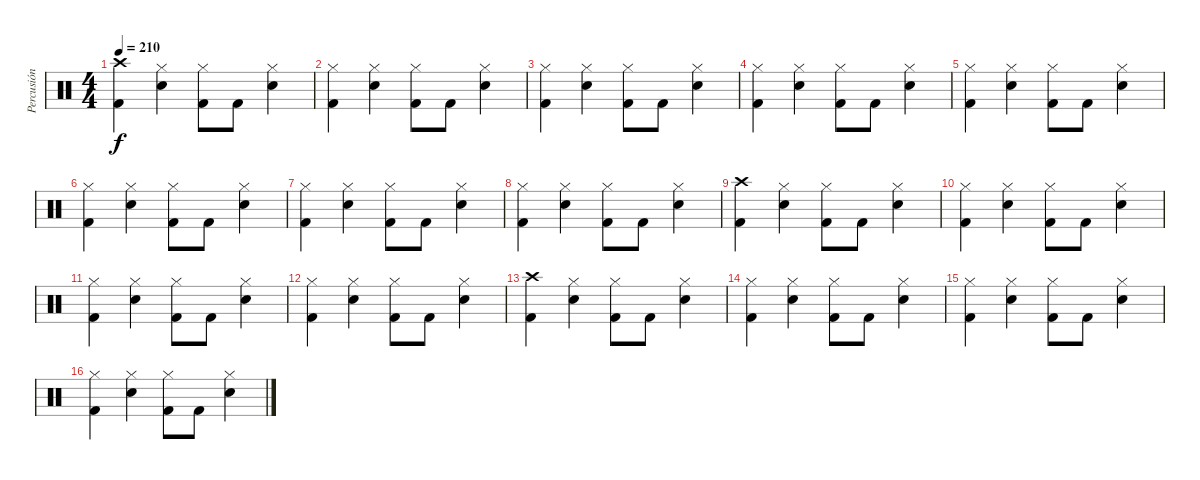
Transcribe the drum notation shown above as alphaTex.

\track ("Percusión" "Percusión") {instrument percussion}
\staff {score}
\articulation defaults
\ts (4 4)
\tempo 210
\clef neutral
\ks c
("Crash high (hit)" "Kick (hit) 2").4{dy f} ("Hi-Hat (closed)" "Electric Snare (hit)").4 ("Hi-Hat (closed)" "Kick (hit) 2").8 "Kick (hit) 2".8 ("Hi-Hat (closed)" "Electric Snare (hit)").4 |
("Hi-Hat (closed)" "Kick (hit) 2").4 ("Hi-Hat (closed)" "Electric Snare (hit)").4 ("Hi-Hat (closed)" "Kick (hit) 2").8 "Kick (hit) 2".8 ("Hi-Hat (closed)" "Electric Snare (hit)").4 |
("Hi-Hat (closed)" "Kick (hit) 2").4 ("Hi-Hat (closed)" "Electric Snare (hit)").4 ("Hi-Hat (closed)" "Kick (hit) 2").8 "Kick (hit) 2".8 ("Hi-Hat (closed)" "Electric Snare (hit)").4 |
("Hi-Hat (closed)" "Kick (hit) 2").4 ("Hi-Hat (closed)" "Electric Snare (hit)").4 ("Hi-Hat (closed)" "Kick (hit) 2").8 "Kick (hit) 2".8 ("Hi-Hat (closed)" "Electric Snare (hit)").4 |
("Hi-Hat (closed)" "Kick (hit) 2").4 ("Hi-Hat (closed)" "Electric Snare (hit)").4 ("Hi-Hat (closed)" "Kick (hit) 2").8 "Kick (hit) 2".8 ("Hi-Hat (closed)" "Electric Snare (hit)").4 |
("Hi-Hat (closed)" "Kick (hit) 2").4 ("Hi-Hat (closed)" "Electric Snare (hit)").4 ("Hi-Hat (closed)" "Kick (hit) 2").8 "Kick (hit) 2".8 ("Hi-Hat (closed)" "Electric Snare (hit)").4 |
("Hi-Hat (closed)" "Kick (hit) 2").4 ("Hi-Hat (closed)" "Electric Snare (hit)").4 ("Hi-Hat (closed)" "Kick (hit) 2").8 "Kick (hit) 2".8 ("Hi-Hat (closed)" "Electric Snare (hit)").4 |
("Hi-Hat (closed)" "Kick (hit) 2").4 ("Hi-Hat (closed)" "Electric Snare (hit)").4 ("Hi-Hat (closed)" "Kick (hit) 2").8 "Kick (hit) 2".8 ("Hi-Hat (closed)" "Electric Snare (hit)").4 |
("Crash high (hit)" "Kick (hit) 2").4 ("Hi-Hat (closed)" "Electric Snare (hit)").4 ("Hi-Hat (closed)" "Kick (hit) 2").8 "Kick (hit) 2".8 ("Hi-Hat (closed)" "Electric Snare (hit)").4 |
("Hi-Hat (closed)" "Kick (hit) 2").4 ("Hi-Hat (closed)" "Electric Snare (hit)").4 ("Hi-Hat (closed)" "Kick (hit) 2").8 "Kick (hit) 2".8 ("Hi-Hat (closed)" "Electric Snare (hit)").4 |
("Hi-Hat (closed)" "Kick (hit) 2").4 ("Hi-Hat (closed)" "Electric Snare (hit)").4 ("Hi-Hat (closed)" "Kick (hit) 2").8 "Kick (hit) 2".8 ("Hi-Hat (closed)" "Electric Snare (hit)").4 |
("Hi-Hat (closed)" "Kick (hit) 2").4 ("Hi-Hat (closed)" "Electric Snare (hit)").4 ("Hi-Hat (closed)" "Kick (hit) 2").8 "Kick (hit) 2".8 ("Hi-Hat (closed)" "Electric Snare (hit)").4 |
("Crash high (hit)" "Kick (hit) 2").4 ("Hi-Hat (closed)" "Electric Snare (hit)").4 ("Hi-Hat (closed)" "Kick (hit) 2").8 "Kick (hit) 2".8 ("Hi-Hat (closed)" "Electric Snare (hit)").4 |
("Hi-Hat (closed)" "Kick (hit) 2").4 ("Hi-Hat (closed)" "Electric Snare (hit)").4 ("Hi-Hat (closed)" "Kick (hit) 2").8 "Kick (hit) 2".8 ("Hi-Hat (closed)" "Electric Snare (hit)").4 |
("Hi-Hat (closed)" "Kick (hit) 2").4 ("Hi-Hat (closed)" "Electric Snare (hit)").4 ("Hi-Hat (closed)" "Kick (hit) 2").8 "Kick (hit) 2".8 ("Hi-Hat (closed)" "Electric Snare (hit)").4 |
("Hi-Hat (closed)" "Kick (hit) 2").4 ("Hi-Hat (closed)" "Electric Snare (hit)").4 ("Hi-Hat (closed)" "Kick (hit) 2").8 "Kick (hit) 2".8 ("Hi-Hat (closed)" "Electric Snare (hit)").4
